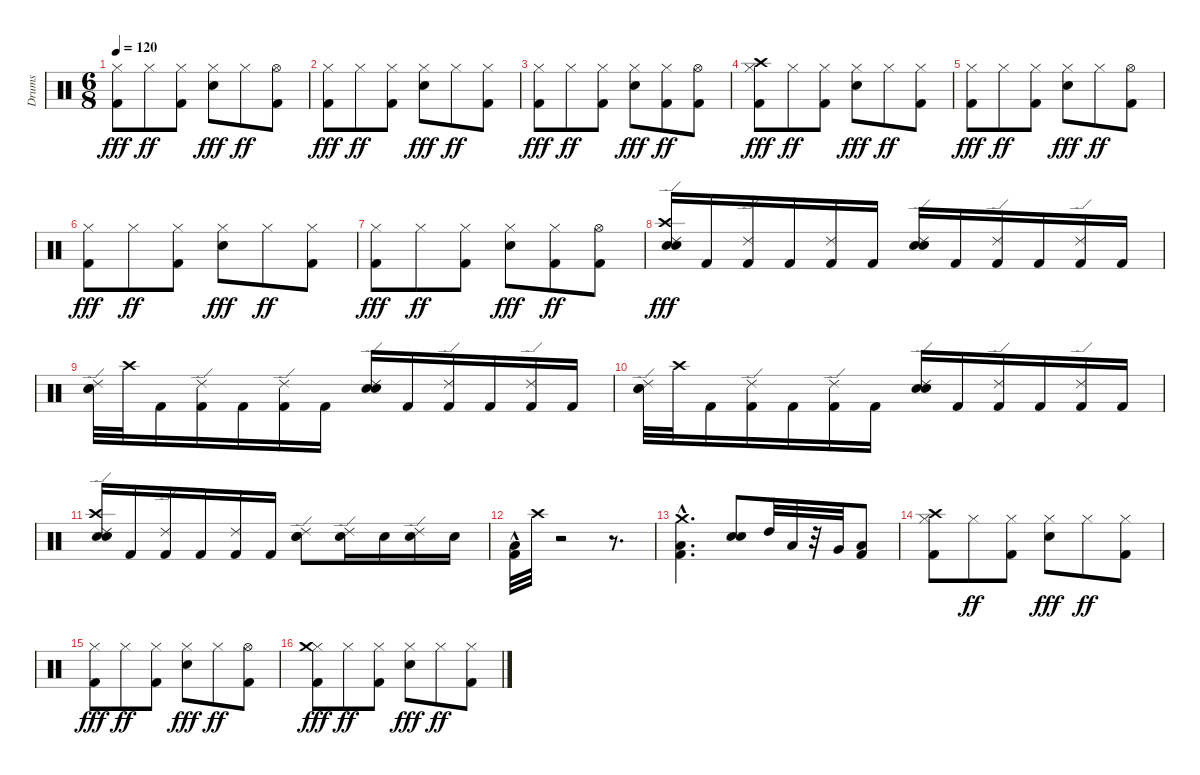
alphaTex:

\track ("Drums" "Drums") {instrument percussion}
\staff {score}
\articulation defaults
\ts (6 8)
\tempo 120
\clef neutral
\ks c
("Hi-Hat (closed)" "Kick (hit) 2").8{dy fff} "Hi-Hat (closed)".8{dy ff} ("Hi-Hat (closed)" "Kick (hit) 2").8 ("Hi-Hat (closed)" "Snare (hit) 2").8{dy fff} "Hi-Hat (closed)".8{dy ff} ("Hi-Hat (open)" "Kick (hit) 2").8 |
("Hi-Hat (closed)" "Kick (hit) 2").8{dy fff} "Hi-Hat (closed)".8{dy ff} ("Hi-Hat (closed)" "Kick (hit) 2").8 ("Hi-Hat (closed)" "Snare (hit) 2").8{dy fff} "Hi-Hat (closed)".8{dy ff} ("Hi-Hat (closed)" "Kick (hit) 2").8 |
("Hi-Hat (closed)" "Kick (hit) 2").8{dy fff} "Hi-Hat (closed)".8{dy ff} ("Hi-Hat (closed)" "Kick (hit) 2").8 ("Hi-Hat (closed)" "Snare (hit) 2").8{dy fff} ("Hi-Hat (closed)" "Kick (hit) 2").8{dy ff} ("Hi-Hat (open)" "Kick (hit) 2").8 |
("Hi-Hat (closed)" "Kick (hit) 2" "Crash high (hit)").8{dy fff} "Hi-Hat (closed)".8{dy ff} ("Hi-Hat (closed)" "Kick (hit) 2").8 ("Hi-Hat (closed)" "Snare (hit) 2").8{dy fff} "Hi-Hat (closed)".8{dy ff} ("Hi-Hat (closed)" "Kick (hit) 2").8 |
("Hi-Hat (closed)" "Kick (hit) 2").8{dy fff} "Hi-Hat (closed)".8{dy ff} ("Hi-Hat (closed)" "Kick (hit) 2").8 ("Hi-Hat (closed)" "Snare (hit) 2").8{dy fff} "Hi-Hat (closed)".8{dy ff} ("Hi-Hat (open)" "Kick (hit) 2").8 |
("Hi-Hat (closed)" "Kick (hit) 2").8{dy fff} "Hi-Hat (closed)".8{dy ff} ("Hi-Hat (closed)" "Kick (hit) 2").8 ("Hi-Hat (closed)" "Snare (hit) 2").8{dy fff} "Hi-Hat (closed)".8{dy ff} ("Hi-Hat (closed)" "Kick (hit) 2").8 |
("Hi-Hat (closed)" "Kick (hit) 2").8{dy fff} "Hi-Hat (closed)".8{dy ff} ("Hi-Hat (closed)" "Kick (hit) 2").8 ("Hi-Hat (closed)" "Snare (hit) 2").8{dy fff} ("Hi-Hat (closed)" "Kick (hit) 2").8{dy ff} ("Hi-Hat (open)" "Kick (hit) 2").8 |
("Ride (edge) 2" "Snare (hit) 2" "Electric Snare (hit)" "Crash high (hit)").16{dy fff} "Kick (hit) 2".16 ("Ride (edge) 2" "Kick (hit) 2").16 "Kick (hit) 2".16 ("Ride (edge) 2" "Kick (hit) 2").16 "Kick (hit) 2".16 ("Ride (edge) 2" "Snare (hit) 2" "Electric Snare (hit)").16 "Kick (hit) 2".16 ("Ride (edge) 2" "Kick (hit) 2").16 "Kick (hit) 2".16 ("Ride (edge) 2" "Kick (hit) 2").16 "Kick (hit) 2".16 |
("Ride (edge) 2" "Snare (hit) 2" "Electric Snare (hit)").32 "Crash high (hit)".32 "Kick (hit) 2".16 ("Ride (edge) 2" "Kick (hit) 2").16 "Kick (hit) 2".16 ("Ride (edge) 2" "Kick (hit) 2").16 "Kick (hit) 2".16 ("Ride (edge) 2" "Snare (hit) 2" "Electric Snare (hit)").16 "Kick (hit) 2".16 ("Ride (edge) 2" "Kick (hit) 2").16 "Kick (hit) 2".16 ("Ride (edge) 2" "Kick (hit) 2").16 "Kick (hit) 2".16 |
("Ride (edge) 2" "Snare (hit) 2" "Electric Snare (hit)").32 "Crash high (hit)".32 "Kick (hit) 2".16 ("Ride (edge) 2" "Kick (hit) 2").16 "Kick (hit) 2".16 ("Ride (edge) 2" "Kick (hit) 2").16 "Kick (hit) 2".16 ("Ride (edge) 2" "Snare (hit) 2" "Electric Snare (hit)").16 "Kick (hit) 2".16 ("Ride (edge) 2" "Kick (hit) 2").16 "Kick (hit) 2".16 ("Ride (edge) 2" "Kick (hit) 2").16 "Kick (hit) 2".16 |
("Ride (edge) 2" "Snare (hit) 2" "Electric Snare (hit)" "Crash high (hit)").16 "Kick (hit) 2".16 ("Ride (edge) 2" "Kick (hit) 2").16 "Kick (hit) 2".16 ("Ride (edge) 2" "Kick (hit) 2").16 "Kick (hit) 2".16 ("Ride (edge) 2" "Snare (hit) 2" "Electric Snare (hit)").8 ("Ride (edge) 2" "Electric Snare (hit)").16 "Electric Snare (hit)".16 ("Ride (edge) 2" "Electric Snare (hit)").16 "Electric Snare (hit)".16 |
("Low Floor Tom (hit)"{hac} "Kick (hit) 2"{hac}).32 "Crash high (hit)".32 r.2 r.8{d} |
("Low Floor Tom (hit)"{hac} "Kick (hit) 2"{hac} "Crash medium (hit)").4{d} ("Electric Snare (hit)" "Snare (hit) 2").8 "High Tom (hit)".32 "Low Tom (hit)".32 r.32 "Very Low Tom (hit)".32 ("Low Floor Tom (hit)" "Kick (hit) 2").8 |
("Hi-Hat (closed)" "Kick (hit) 2" "Crash high (hit)").8 "Hi-Hat (closed)".8{dy ff} ("Hi-Hat (closed)" "Kick (hit) 2").8 ("Hi-Hat (closed)" "Snare (hit) 2").8{dy fff} "Hi-Hat (closed)".8{dy ff} ("Hi-Hat (closed)" "Kick (hit) 2").8 |
("Hi-Hat (closed)" "Kick (hit) 2").8{dy fff} "Hi-Hat (closed)".8{dy ff} ("Hi-Hat (closed)" "Kick (hit) 2").8 ("Hi-Hat (closed)" "Snare (hit) 2").8{dy fff} "Hi-Hat (closed)".8{dy ff} ("Hi-Hat (open)" "Kick (hit) 2").8 |
("Hi-Hat (closed)" "Kick (hit) 2" "Crash medium (hit)").8{dy fff} "Hi-Hat (closed)".8{dy ff} ("Hi-Hat (closed)" "Kick (hit) 2").8 ("Hi-Hat (closed)" "Snare (hit) 2").8{dy fff} "Hi-Hat (closed)".8{dy ff} ("Hi-Hat (closed)" "Kick (hit) 2").8
